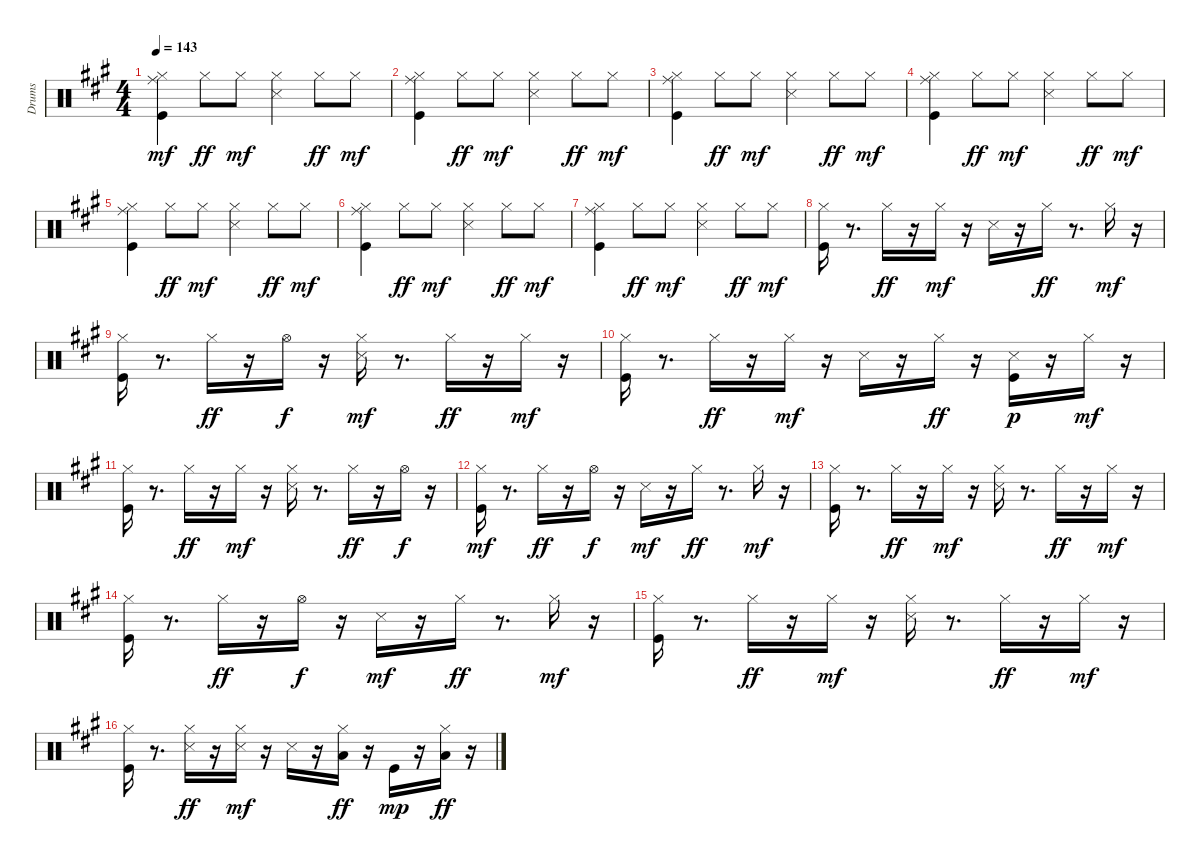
\track ("Drums" "Drums") {instrument percussion}
\staff {score}
\articulation defaults
\ts (4 4)
\tempo 143
\clef neutral
\ks a
("Hi-Hat (closed)" "Ride (middle)" "Kick (hit)").4{dy mf} "Hi-Hat (closed)".8{dy ff} "Hi-Hat (closed)".8{dy mf} ("Hi-Hat (closed)" "Snare (side stick) 3").4 "Hi-Hat (closed)".8{dy ff} "Hi-Hat (closed)".8{dy mf} |
("Hi-Hat (closed)" "Ride (middle)" "Kick (hit)").4 "Hi-Hat (closed)".8{dy ff} "Hi-Hat (closed)".8{dy mf} ("Hi-Hat (closed)" "Snare (side stick) 3").4 "Hi-Hat (closed)".8{dy ff} "Hi-Hat (closed)".8{dy mf} |
("Hi-Hat (closed)" "Ride (middle)" "Kick (hit)").4 "Hi-Hat (closed)".8{dy ff} "Hi-Hat (closed)".8{dy mf} ("Hi-Hat (closed)" "Snare (side stick) 3").4 "Hi-Hat (closed)".8{dy ff} "Hi-Hat (closed)".8{dy mf} |
("Hi-Hat (closed)" "Ride (middle)" "Kick (hit)").4 "Hi-Hat (closed)".8{dy ff} "Hi-Hat (closed)".8{dy mf} ("Hi-Hat (closed)" "Snare (side stick) 3").4 "Hi-Hat (closed)".8{dy ff} "Hi-Hat (closed)".8{dy mf} |
("Hi-Hat (closed)" "Ride (middle)" "Kick (hit)").4 "Hi-Hat (closed)".8{dy ff} "Hi-Hat (closed)".8{dy mf} ("Hi-Hat (closed)" "Snare (side stick) 3").4 "Hi-Hat (closed)".8{dy ff} "Hi-Hat (closed)".8{dy mf} |
("Hi-Hat (closed)" "Ride (middle)" "Kick (hit)").4 "Hi-Hat (closed)".8{dy ff} "Hi-Hat (closed)".8{dy mf} ("Hi-Hat (closed)" "Snare (side stick) 3").4 "Hi-Hat (closed)".8{dy ff} "Hi-Hat (closed)".8{dy mf} |
("Hi-Hat (closed)" "Ride (middle)" "Kick (hit)").4 "Hi-Hat (closed)".8{dy ff} "Hi-Hat (closed)".8{dy mf} ("Hi-Hat (closed)" "Snare (side stick) 3").4 "Hi-Hat (closed)".8{dy ff} "Hi-Hat (closed)".8{dy mf} |
("Kick (hit)" "Hi-Hat (closed)").16 r.8{d} "Hi-Hat (closed)".16{dy ff} r.16 "Hi-Hat (closed)".16{dy mf} r.16 "Snare (side stick) 3".16 r.16 "Hi-Hat (closed)".16{dy ff} r.8{d} "Hi-Hat (closed)".16{dy mf} r.16 |
("Kick (hit)" "Hi-Hat (closed)").16 r.8{d} "Hi-Hat (closed)".16{dy ff} r.16 "Hi-Hat (open)".16{dy f} r.16 ("Hi-Hat (closed)" "Snare (side stick) 3").16{dy mf} r.8{d} "Hi-Hat (closed)".16{dy ff} r.16 "Hi-Hat (closed)".16{dy mf} r.16 |
("Kick (hit)" "Hi-Hat (closed)").16 r.8{d} "Hi-Hat (closed)".16{dy ff} r.16 "Hi-Hat (closed)".16{dy mf} r.16 "Snare (side stick) 3".16 r.16 "Hi-Hat (closed)".16{dy ff} r.16 ("Kick (hit)" "Snare (side stick) 3").16{dy p} r.16 "Hi-Hat (closed)".16{dy mf} r.16 |
("Kick (hit)" "Hi-Hat (closed)").16 r.8{d} "Hi-Hat (closed)".16{dy ff} r.16 "Hi-Hat (closed)".16{dy mf} r.16 ("Hi-Hat (closed)" "Snare (side stick) 3").16 r.8{d} "Hi-Hat (closed)".16{dy ff} r.16 "Hi-Hat (open)".16{dy f} r.16 |
("Kick (hit)" "Hi-Hat (closed)").16{dy mf} r.8{d} "Hi-Hat (closed)".16{dy ff} r.16 "Hi-Hat (open)".16{dy f} r.16 "Snare (side stick) 3".16{dy mf} r.16 "Hi-Hat (closed)".16{dy ff} r.8{d} "Hi-Hat (closed)".16{dy mf} r.16 |
("Kick (hit)" "Hi-Hat (closed)").16 r.8{d} "Hi-Hat (closed)".16{dy ff} r.16 "Hi-Hat (closed)".16{dy mf} r.16 ("Hi-Hat (closed)" "Snare (side stick) 3").16 r.8{d} "Hi-Hat (closed)".16{dy ff} r.16 "Hi-Hat (closed)".16{dy mf} r.16 |
("Kick (hit)" "Hi-Hat (closed)").16 r.8{d} "Hi-Hat (closed)".16{dy ff} r.16 "Hi-Hat (open)".16{dy f} r.16 "Snare (side stick) 3".16{dy mf} r.16 "Hi-Hat (closed)".16{dy ff} r.8{d} "Hi-Hat (closed)".16{dy mf} r.16 |
("Kick (hit)" "Hi-Hat (closed)").16 r.8{d} "Hi-Hat (closed)".16{dy ff} r.16 "Hi-Hat (closed)".16{dy mf} r.16 ("Hi-Hat (closed)" "Snare (side stick) 3").16 r.8{d} "Hi-Hat (closed)".16{dy ff} r.16 "Hi-Hat (closed)".16{dy mf} r.16 |
("Kick (hit)" "Hi-Hat (closed)").16 r.8{d} ("Hi-Hat (closed)" "Snare (side stick) 3").16{dy ff} r.16 ("Hi-Hat (closed)" "Snare (side stick) 3").16{dy mf} r.16 "Snare (side stick) 3".16 r.16 ("Hi-Hat (closed)" "Low Tom (hit)").16{dy ff} r.16 "Kick (hit)".16{dy mp} r.16 ("Hi-Hat (closed)" "Low Floor Tom (hit)").16{dy ff} r.16
